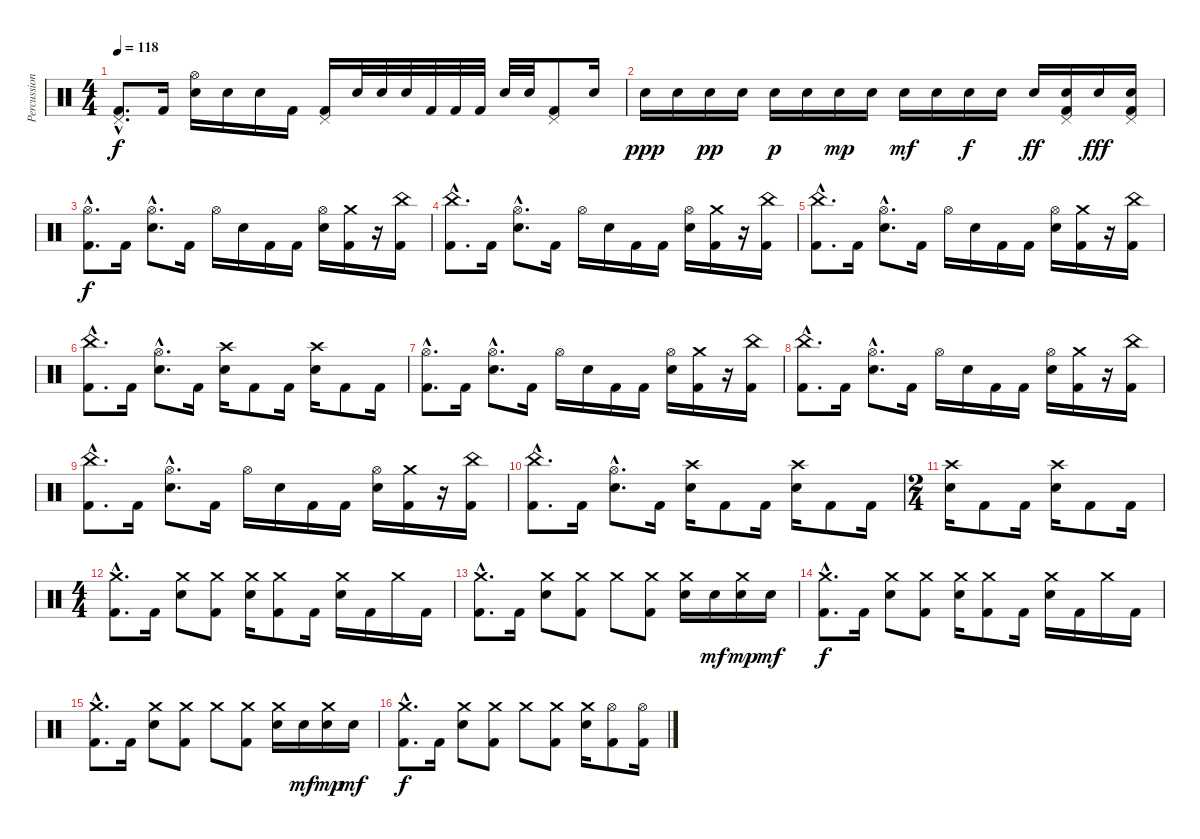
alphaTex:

\track ("Percussions" "Percussion") {instrument percussion}
\staff {score}
\articulation defaults
\ts (4 4)
\tempo 118
\clef neutral
\ks c
("Pedal Hi-Hat (hit)"{hac} "Kick (hit) 2"{hac}).8{d dy f} "Kick (hit) 2".16 ("Hi-Hat (open)" "Electric Snare (hit)").16 "Electric Snare (hit)".16 "Electric Snare (hit)".16 "Kick (hit) 2".16 ("Pedal Hi-Hat (hit)" "Kick (hit) 2").16 "Electric Snare (hit)".32 "Electric Snare (hit)".32 "Electric Snare (hit)".32 "Kick (hit) 2".32 "Kick (hit) 2".32 "Kick (hit) 2".32 "Electric Snare (hit)".32 "Electric Snare (hit)".32 ("Pedal Hi-Hat (hit)" "Kick (hit) 2").8 "Electric Snare (hit)".16 |
"Electric Snare (hit)".16{dy ppp} "Electric Snare (hit)".16 "Electric Snare (hit)".16{dy pp} "Electric Snare (hit)".16 "Electric Snare (hit)".16{dy p} "Electric Snare (hit)".16 "Electric Snare (hit)".16{dy mp} "Electric Snare (hit)".16 "Electric Snare (hit)".16{dy mf} "Electric Snare (hit)".16 "Electric Snare (hit)".16{dy f} "Electric Snare (hit)".16 "Electric Snare (hit)".16{dy ff} ("Pedal Hi-Hat (hit)" "Kick (hit) 2" "Electric Snare (hit)").16 "Electric Snare (hit)".16{dy fff} ("Pedal Hi-Hat (hit)" "Kick (hit) 2" "Electric Snare (hit)").16 |
("Hi-Hat (open)"{hac} "Kick (hit) 2"{hac}).8{d dy f} "Kick (hit) 2".16 ("Hi-Hat (open)"{hac} "Electric Snare (hit)"{hac}).8{d} "Kick (hit) 2".16 "Hi-Hat (open)".16 "Electric Snare (hit)".16 "Kick (hit) 2".16 "Kick (hit) 2".16 ("Hi-Hat (open)" "Electric Snare (hit)").16 ("Crash medium (hit)" "Kick (hit) 2").16 r.16 ("China (hit)" "Kick (hit) 2").16 |
("China (hit)"{hac} "Kick (hit) 2"{hac}).8{d} "Kick (hit) 2".16 ("Hi-Hat (open)"{hac} "Electric Snare (hit)"{hac}).8{d} "Kick (hit) 2".16 "Hi-Hat (open)".16 "Electric Snare (hit)".16 "Kick (hit) 2".16 "Kick (hit) 2".16 ("Hi-Hat (open)" "Electric Snare (hit)").16 ("Crash medium (hit)" "Kick (hit) 2").16 r.16 ("China (hit)" "Kick (hit) 2").16 |
("China (hit)"{hac} "Kick (hit) 2"{hac}).8{d} "Kick (hit) 2".16 ("Hi-Hat (open)"{hac} "Electric Snare (hit)"{hac}).8{d} "Kick (hit) 2".16 "Hi-Hat (open)".16 "Electric Snare (hit)".16 "Kick (hit) 2".16 "Kick (hit) 2".16 ("Hi-Hat (open)" "Electric Snare (hit)").16 ("Crash medium (hit)" "Kick (hit) 2").16 r.16 ("China (hit)" "Kick (hit) 2").16 |
("China (hit)"{hac} "Kick (hit) 2"{hac}).8{d} "Kick (hit) 2".16 ("Hi-Hat (open)"{hac} "Electric Snare (hit)"{hac}).8{d} "Kick (hit) 2".16 ("Crash high (hit)" "Electric Snare (hit)").16 "Kick (hit) 2".8 "Kick (hit) 2".16 ("Crash high (hit)" "Electric Snare (hit)").16 "Kick (hit) 2".8 "Kick (hit) 2".16 |
("Hi-Hat (open)"{hac} "Kick (hit) 2"{hac}).8{d} "Kick (hit) 2".16 ("Hi-Hat (open)"{hac} "Electric Snare (hit)"{hac}).8{d} "Kick (hit) 2".16 "Hi-Hat (open)".16 "Electric Snare (hit)".16 "Kick (hit) 2".16 "Kick (hit) 2".16 ("Hi-Hat (open)" "Electric Snare (hit)").16 ("Crash medium (hit)" "Kick (hit) 2").16 r.16 ("China (hit)" "Kick (hit) 2").16 |
("China (hit)"{hac} "Kick (hit) 2"{hac}).8{d} "Kick (hit) 2".16 ("Hi-Hat (open)"{hac} "Electric Snare (hit)"{hac}).8{d} "Kick (hit) 2".16 "Hi-Hat (open)".16 "Electric Snare (hit)".16 "Kick (hit) 2".16 "Kick (hit) 2".16 ("Hi-Hat (open)" "Electric Snare (hit)").16 ("Crash medium (hit)" "Kick (hit) 2").16 r.16 ("China (hit)" "Kick (hit) 2").16 |
("China (hit)"{hac} "Kick (hit) 2"{hac}).8{d} "Kick (hit) 2".16 ("Hi-Hat (open)"{hac} "Electric Snare (hit)"{hac}).8{d} "Kick (hit) 2".16 "Hi-Hat (open)".16 "Electric Snare (hit)".16 "Kick (hit) 2".16 "Kick (hit) 2".16 ("Hi-Hat (open)" "Electric Snare (hit)").16 ("Crash medium (hit)" "Kick (hit) 2").16 r.16 ("China (hit)" "Kick (hit) 2").16 |
("China (hit)"{hac} "Kick (hit) 2"{hac}).8{d} "Kick (hit) 2".16 ("Hi-Hat (open)"{hac} "Electric Snare (hit)"{hac}).8{d} "Kick (hit) 2".16 ("Crash high (hit)" "Electric Snare (hit)").16 "Kick (hit) 2".8 "Kick (hit) 2".16 ("Crash high (hit)" "Electric Snare (hit)").16 "Kick (hit) 2".8 "Kick (hit) 2".16 |
\ts (2 4)
("Crash high (hit)" "Electric Snare (hit)").16 "Kick (hit) 2".8 "Kick (hit) 2".16 ("Crash high (hit)" "Electric Snare (hit)").16 "Kick (hit) 2".8 "Kick (hit) 2".16 |
\ts (4 4)
("Crash medium (hit)"{hac} "Kick (hit) 2"{hac}).8{d} "Kick (hit) 2".16 ("Crash medium (hit)" "Electric Snare (hit)").8 ("Crash medium (hit)" "Kick (hit) 2").8 ("Crash medium (hit)" "Electric Snare (hit)").16 ("Crash medium (hit)" "Kick (hit) 2").8 "Kick (hit) 2".16 ("Crash medium (hit)" "Electric Snare (hit)").16 "Kick (hit) 2".16 "Crash medium (hit)".16 "Kick (hit) 2".16 |
("Crash medium (hit)"{hac} "Kick (hit) 2"{hac}).8{d} "Kick (hit) 2".16 ("Crash medium (hit)" "Electric Snare (hit)").8 ("Crash medium (hit)" "Kick (hit) 2").8 "Crash medium (hit)".8 ("Crash medium (hit)" "Kick (hit) 2").8 ("Crash medium (hit)" "Electric Snare (hit)").16 "Electric Snare (hit)".16{dy mf} ("Crash medium (hit)" "Electric Snare (hit)").16{dy mp} "Electric Snare (hit)".16{dy mf} |
("Crash medium (hit)"{hac} "Kick (hit) 2"{hac}).8{d dy f} "Kick (hit) 2".16 ("Crash medium (hit)" "Electric Snare (hit)").8 ("Crash medium (hit)" "Kick (hit) 2").8 ("Crash medium (hit)" "Electric Snare (hit)").16 ("Crash medium (hit)" "Kick (hit) 2").8 "Kick (hit) 2".16 ("Crash medium (hit)" "Electric Snare (hit)").16 "Kick (hit) 2".16 "Crash medium (hit)".16 "Kick (hit) 2".16 |
("Crash medium (hit)"{hac} "Kick (hit) 2"{hac}).8{d} "Kick (hit) 2".16 ("Crash medium (hit)" "Electric Snare (hit)").8 ("Crash medium (hit)" "Kick (hit) 2").8 "Crash medium (hit)".8 ("Crash medium (hit)" "Kick (hit) 2").8 ("Crash medium (hit)" "Electric Snare (hit)").16 "Electric Snare (hit)".16{dy mf} ("Crash medium (hit)" "Electric Snare (hit)").16{dy mp} "Electric Snare (hit)".16{dy mf} |
("Crash medium (hit)"{hac} "Kick (hit) 2"{hac}).8{d dy f} "Kick (hit) 2".16 ("Crash medium (hit)" "Electric Snare (hit)").8 ("Crash medium (hit)" "Kick (hit) 2").8 "Crash medium (hit)".8 ("Crash medium (hit)" "Kick (hit) 2").8 ("Crash medium (hit)" "Electric Snare (hit)").16 ("Hi-Hat (open)" "Kick (hit) 2").8 ("Hi-Hat (open)" "Kick (hit) 2").16
